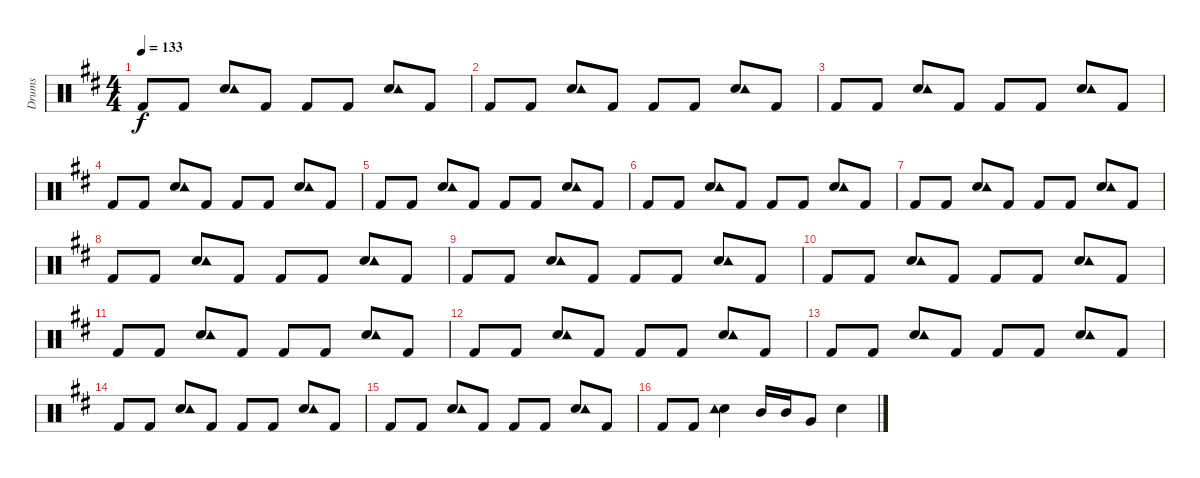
\track ("Drums" "Drums") {instrument percussion}
\staff {score}
\articulation defaults
\ts (4 4)
\tempo 133
\clef neutral
\ks d "Kick (hit) 2".8{dy f} "Kick (hit) 2".8
("Snare (hit) 2" "Tambourine (hit)").8 "Kick (hit) 2".8 "Kick (hit) 2".8 "Kick (hit) 2".8 ("Snare (hit) 2" "Tambourine (hit)").8 "Kick (hit) 2".8 |
"Kick (hit) 2".8 "Kick (hit) 2".8 ("Snare (hit) 2" "Tambourine (hit)").8 "Kick (hit) 2".8 "Kick (hit) 2".8 "Kick (hit) 2".8 ("Snare (hit) 2" "Tambourine (hit)").8 "Kick (hit) 2".8 |
"Kick (hit) 2".8 "Kick (hit) 2".8 ("Snare (hit) 2" "Tambourine (hit)").8 "Kick (hit) 2".8 "Kick (hit) 2".8 "Kick (hit) 2".8 ("Snare (hit) 2" "Tambourine (hit)").8 "Kick (hit) 2".8 |
"Kick (hit) 2".8 "Kick (hit) 2".8 ("Snare (hit) 2" "Tambourine (hit)").8 "Kick (hit) 2".8 "Kick (hit) 2".8 "Kick (hit) 2".8 ("Snare (hit) 2" "Tambourine (hit)").8 "Kick (hit) 2".8 |
"Kick (hit) 2".8 "Kick (hit) 2".8 ("Snare (hit) 2" "Tambourine (hit)").8 "Kick (hit) 2".8 "Kick (hit) 2".8 "Kick (hit) 2".8 ("Snare (hit) 2" "Tambourine (hit)").8 "Kick (hit) 2".8 |
"Kick (hit) 2".8 "Kick (hit) 2".8 ("Snare (hit) 2" "Tambourine (hit)").8 "Kick (hit) 2".8 "Kick (hit) 2".8 "Kick (hit) 2".8 ("Snare (hit) 2" "Tambourine (hit)").8 "Kick (hit) 2".8 |
"Kick (hit) 2".8 "Kick (hit) 2".8 ("Snare (hit) 2" "Tambourine (hit)").8 "Kick (hit) 2".8 "Kick (hit) 2".8 "Kick (hit) 2".8 ("Snare (hit) 2" "Tambourine (hit)").8 "Kick (hit) 2".8 |
"Kick (hit) 2".8 "Kick (hit) 2".8 ("Snare (hit) 2" "Tambourine (hit)").8 "Kick (hit) 2".8 "Kick (hit) 2".8 "Kick (hit) 2".8 ("Snare (hit) 2" "Tambourine (hit)").8 "Kick (hit) 2".8 |
"Kick (hit) 2".8 "Kick (hit) 2".8 ("Snare (hit) 2" "Tambourine (hit)").8 "Kick (hit) 2".8 "Kick (hit) 2".8 "Kick (hit) 2".8 ("Snare (hit) 2" "Tambourine (hit)").8 "Kick (hit) 2".8 |
"Kick (hit) 2".8 "Kick (hit) 2".8 ("Snare (hit) 2" "Tambourine (hit)").8 "Kick (hit) 2".8 "Kick (hit) 2".8 "Kick (hit) 2".8 ("Snare (hit) 2" "Tambourine (hit)").8 "Kick (hit) 2".8 |
"Kick (hit) 2".8 "Kick (hit) 2".8 ("Snare (hit) 2" "Tambourine (hit)").8 "Kick (hit) 2".8 "Kick (hit) 2".8 "Kick (hit) 2".8 ("Snare (hit) 2" "Tambourine (hit)").8 "Kick (hit) 2".8 |
"Kick (hit) 2".8 "Kick (hit) 2".8 ("Snare (hit) 2" "Tambourine (hit)").8 "Kick (hit) 2".8 "Kick (hit) 2".8 "Kick (hit) 2".8 ("Snare (hit) 2" "Tambourine (hit)").8 "Kick (hit) 2".8 |
"Kick (hit) 2".8 "Kick (hit) 2".8 ("Snare (hit) 2" "Tambourine (hit)").8 "Kick (hit) 2".8 "Kick (hit) 2".8 "Kick (hit) 2".8 ("Snare (hit) 2" "Tambourine (hit)").8 "Kick (hit) 2".8 |
"Kick (hit) 2".8 "Kick (hit) 2".8 ("Snare (hit) 2" "Tambourine (hit)").8 "Kick (hit) 2".8 "Kick (hit) 2".8 "Kick (hit) 2".8 ("Snare (hit) 2" "Tambourine (hit)").8 "Kick (hit) 2".8 |
"Kick (hit) 2".8 "Kick (hit) 2".8 ("Snare (hit) 2" "Tambourine (hit)").8 "Kick (hit) 2".8 "Kick (hit) 2".8 "Kick (hit) 2".8 ("Snare (hit) 2" "Tambourine (hit)").8 "Kick (hit) 2".8 |
"Kick (hit) 2".8 "Kick (hit) 2".8 ("Snare (hit) 2" "Tambourine (hit)").4 "Mid Tom (hit)".16 "Mid Tom (hit)".16 "Very Low Tom (hit)".8 "Snare (hit) 2".4
